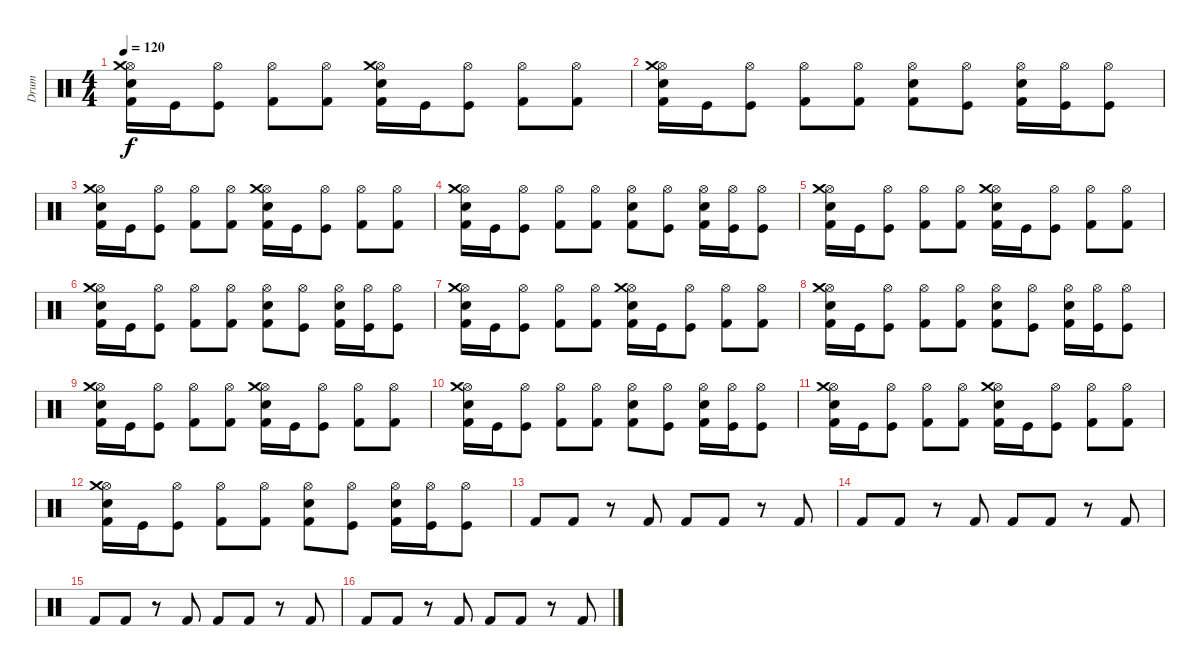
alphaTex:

\track ("Drum" "Drum") {instrument percussion}
\staff {score}
\articulation defaults
\ts (4 4)
\tempo 120
\clef neutral
\ks c
("Hi-Hat (open)" "Crash medium (hit)" "Snare (hit) 2" "Kick (hit) 2").16{dy f} "Kick (hit)".16 ("Hi-Hat (open)" "Kick (hit)").8 ("Hi-Hat (open)" "Kick (hit) 2").8 ("Hi-Hat (open)" "Kick (hit) 2").8 ("Hi-Hat (open)" "Crash medium (hit)" "Snare (hit) 2" "Kick (hit) 2").16 "Kick (hit)".16 ("Hi-Hat (open)" "Kick (hit)").8 ("Hi-Hat (open)" "Kick (hit) 2").8 ("Hi-Hat (open)" "Kick (hit) 2").8 |
("Hi-Hat (open)" "Crash medium (hit)" "Snare (hit) 2" "Kick (hit) 2").16 "Kick (hit)".16 ("Hi-Hat (open)" "Kick (hit)").8 ("Hi-Hat (open)" "Kick (hit) 2").8 ("Hi-Hat (open)" "Kick (hit) 2").8 ("Hi-Hat (open)" "Snare (hit) 2" "Kick (hit) 2").8 ("Hi-Hat (open)" "Kick (hit)").8 ("Hi-Hat (open)" "Snare (hit) 2" "Kick (hit) 2").16 ("Hi-Hat (open)" "Kick (hit)").16 ("Hi-Hat (open)" "Kick (hit)").8 |
("Hi-Hat (open)" "Crash medium (hit)" "Snare (hit) 2" "Kick (hit) 2").16 "Kick (hit)".16 ("Hi-Hat (open)" "Kick (hit)").8 ("Hi-Hat (open)" "Kick (hit) 2").8 ("Hi-Hat (open)" "Kick (hit) 2").8 ("Hi-Hat (open)" "Crash medium (hit)" "Snare (hit) 2" "Kick (hit) 2").16 "Kick (hit)".16 ("Hi-Hat (open)" "Kick (hit)").8 ("Hi-Hat (open)" "Kick (hit) 2").8 ("Hi-Hat (open)" "Kick (hit) 2").8 |
("Hi-Hat (open)" "Crash medium (hit)" "Snare (hit) 2" "Kick (hit) 2").16 "Kick (hit)".16 ("Hi-Hat (open)" "Kick (hit)").8 ("Hi-Hat (open)" "Kick (hit) 2").8 ("Hi-Hat (open)" "Kick (hit) 2").8 ("Hi-Hat (open)" "Snare (hit) 2" "Kick (hit) 2").8 ("Hi-Hat (open)" "Kick (hit)").8 ("Hi-Hat (open)" "Snare (hit) 2" "Kick (hit) 2").16 ("Hi-Hat (open)" "Kick (hit)").16 ("Hi-Hat (open)" "Kick (hit)").8 |
("Hi-Hat (open)" "Crash medium (hit)" "Snare (hit) 2" "Kick (hit) 2").16 "Kick (hit)".16 ("Hi-Hat (open)" "Kick (hit)").8 ("Hi-Hat (open)" "Kick (hit) 2").8 ("Hi-Hat (open)" "Kick (hit) 2").8 ("Hi-Hat (open)" "Crash medium (hit)" "Snare (hit) 2" "Kick (hit) 2").16 "Kick (hit)".16 ("Hi-Hat (open)" "Kick (hit)").8 ("Hi-Hat (open)" "Kick (hit) 2").8 ("Hi-Hat (open)" "Kick (hit) 2").8 |
("Hi-Hat (open)" "Crash medium (hit)" "Snare (hit) 2" "Kick (hit) 2").16 "Kick (hit)".16 ("Hi-Hat (open)" "Kick (hit)").8 ("Hi-Hat (open)" "Kick (hit) 2").8 ("Hi-Hat (open)" "Kick (hit) 2").8 ("Hi-Hat (open)" "Snare (hit) 2" "Kick (hit) 2").8 ("Hi-Hat (open)" "Kick (hit)").8 ("Hi-Hat (open)" "Snare (hit) 2" "Kick (hit) 2").16 ("Hi-Hat (open)" "Kick (hit)").16 ("Hi-Hat (open)" "Kick (hit)").8 |
("Hi-Hat (open)" "Crash medium (hit)" "Snare (hit) 2" "Kick (hit) 2").16 "Kick (hit)".16 ("Hi-Hat (open)" "Kick (hit)").8 ("Hi-Hat (open)" "Kick (hit) 2").8 ("Hi-Hat (open)" "Kick (hit) 2").8 ("Hi-Hat (open)" "Crash medium (hit)" "Snare (hit) 2" "Kick (hit) 2").16 "Kick (hit)".16 ("Hi-Hat (open)" "Kick (hit)").8 ("Hi-Hat (open)" "Kick (hit) 2").8 ("Hi-Hat (open)" "Kick (hit) 2").8 |
("Hi-Hat (open)" "Crash medium (hit)" "Snare (hit) 2" "Kick (hit) 2").16 "Kick (hit)".16 ("Hi-Hat (open)" "Kick (hit)").8 ("Hi-Hat (open)" "Kick (hit) 2").8 ("Hi-Hat (open)" "Kick (hit) 2").8 ("Hi-Hat (open)" "Snare (hit) 2" "Kick (hit) 2").8 ("Hi-Hat (open)" "Kick (hit)").8 ("Hi-Hat (open)" "Snare (hit) 2" "Kick (hit) 2").16 ("Hi-Hat (open)" "Kick (hit)").16 ("Hi-Hat (open)" "Kick (hit)").8 |
("Hi-Hat (open)" "Crash medium (hit)" "Snare (hit) 2" "Kick (hit) 2").16 "Kick (hit)".16 ("Hi-Hat (open)" "Kick (hit)").8 ("Hi-Hat (open)" "Kick (hit) 2").8 ("Hi-Hat (open)" "Kick (hit) 2").8 ("Hi-Hat (open)" "Crash medium (hit)" "Snare (hit) 2" "Kick (hit) 2").16 "Kick (hit)".16 ("Hi-Hat (open)" "Kick (hit)").8 ("Hi-Hat (open)" "Kick (hit) 2").8 ("Hi-Hat (open)" "Kick (hit) 2").8 |
("Hi-Hat (open)" "Crash medium (hit)" "Snare (hit) 2" "Kick (hit) 2").16 "Kick (hit)".16 ("Hi-Hat (open)" "Kick (hit)").8 ("Hi-Hat (open)" "Kick (hit) 2").8 ("Hi-Hat (open)" "Kick (hit) 2").8 ("Hi-Hat (open)" "Snare (hit) 2" "Kick (hit) 2").8 ("Hi-Hat (open)" "Kick (hit)").8 ("Hi-Hat (open)" "Snare (hit) 2" "Kick (hit) 2").16 ("Hi-Hat (open)" "Kick (hit)").16 ("Hi-Hat (open)" "Kick (hit)").8 |
("Hi-Hat (open)" "Crash medium (hit)" "Snare (hit) 2" "Kick (hit) 2").16 "Kick (hit)".16 ("Hi-Hat (open)" "Kick (hit)").8 ("Hi-Hat (open)" "Kick (hit) 2").8 ("Hi-Hat (open)" "Kick (hit) 2").8 ("Hi-Hat (open)" "Crash medium (hit)" "Snare (hit) 2" "Kick (hit) 2").16 "Kick (hit)".16 ("Hi-Hat (open)" "Kick (hit)").8 ("Hi-Hat (open)" "Kick (hit) 2").8 ("Hi-Hat (open)" "Kick (hit) 2").8 |
("Hi-Hat (open)" "Crash medium (hit)" "Snare (hit) 2" "Kick (hit) 2").16 "Kick (hit)".16 ("Hi-Hat (open)" "Kick (hit)").8 ("Hi-Hat (open)" "Kick (hit) 2").8 ("Hi-Hat (open)" "Kick (hit) 2").8 ("Hi-Hat (open)" "Snare (hit) 2" "Kick (hit) 2").8 ("Hi-Hat (open)" "Kick (hit)").8 ("Hi-Hat (open)" "Snare (hit) 2" "Kick (hit) 2").16 ("Hi-Hat (open)" "Kick (hit)").16 ("Hi-Hat (open)" "Kick (hit)").8 |
"Kick (hit) 2".8 "Kick (hit) 2".8 r.8 "Kick (hit) 2".8 "Kick (hit) 2".8 "Kick (hit) 2".8 r.8 "Kick (hit) 2".8 |
"Kick (hit) 2".8 "Kick (hit) 2".8 r.8 "Kick (hit) 2".8 "Kick (hit) 2".8 "Kick (hit) 2".8 r.8 "Kick (hit) 2".8 |
"Kick (hit) 2".8 "Kick (hit) 2".8 r.8 "Kick (hit) 2".8 "Kick (hit) 2".8 "Kick (hit) 2".8 r.8 "Kick (hit) 2".8 |
"Kick (hit) 2".8 "Kick (hit) 2".8 r.8 "Kick (hit) 2".8 "Kick (hit) 2".8 "Kick (hit) 2".8 r.8 "Kick (hit) 2".8
